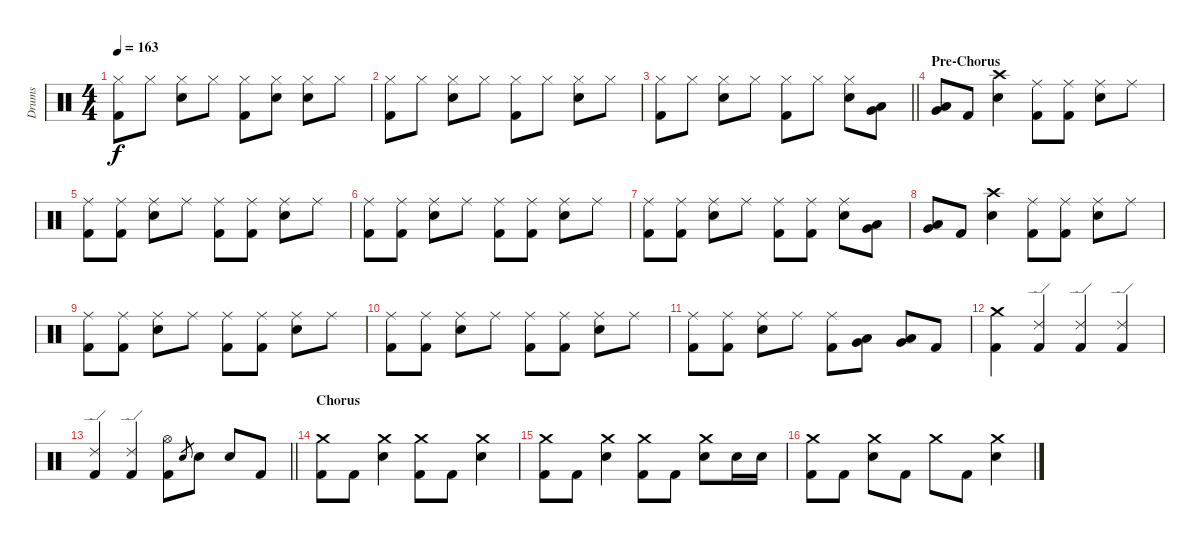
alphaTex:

\track ("Drums" "Drums") {instrument percussion}
\staff {score}
\articulation defaults
\ts (4 4)
\tempo 163
\clef neutral
\ks c
("Hi-Hat (closed)" "Kick (hit) 2").8{dy f} "Hi-Hat (closed)".8 ("Hi-Hat (closed)" "Electric Snare (hit)").8 "Hi-Hat (closed)".8 ("Hi-Hat (closed)" "Kick (hit) 2").8 ("Hi-Hat (closed)" "Electric Snare (hit)").8 ("Hi-Hat (closed)" "Electric Snare (hit)").8 "Hi-Hat (closed)".8 |
("Hi-Hat (closed)" "Kick (hit) 2").8 "Hi-Hat (closed)".8 ("Hi-Hat (closed)" "Electric Snare (hit)").8 "Hi-Hat (closed)".8 ("Hi-Hat (closed)" "Kick (hit) 2").8 "Hi-Hat (closed)".8 ("Hi-Hat (closed)" "Electric Snare (hit)").8 "Hi-Hat (closed)".8 |
\barLineRight lightlight
("Hi-Hat (closed)" "Kick (hit) 2").8 "Hi-Hat (closed)".8 ("Hi-Hat (closed)" "Electric Snare (hit)").8 "Hi-Hat (closed)".8 ("Hi-Hat (closed)" "Kick (hit) 2").8 "Hi-Hat (closed)".8 ("Hi-Hat (closed)" "Electric Snare (hit)").8 ("Low Floor Tom (hit)" "Very Low Tom (hit)").8 |
\section ("" "Pre-Chorus")
("Low Floor Tom (hit)" "Very Low Tom (hit)").8 "Kick (hit) 2".8 ("Crash high (hit)" "Electric Snare (hit)").4 ("Ride (middle)" "Kick (hit) 2").8 ("Ride (middle)" "Kick (hit) 2").8 ("Ride (middle)" "Electric Snare (hit)").8 "Ride (middle)".8 |
("Ride (middle)" "Kick (hit) 2").8 ("Ride (middle)" "Kick (hit) 2").8 ("Ride (middle)" "Electric Snare (hit)").8 "Ride (middle)".8 ("Ride (middle)" "Kick (hit) 2").8 ("Ride (middle)" "Kick (hit) 2").8 ("Ride (middle)" "Electric Snare (hit)").8 "Ride (middle)".8 |
("Ride (middle)" "Kick (hit) 2").8 ("Ride (middle)" "Kick (hit) 2").8 ("Ride (middle)" "Electric Snare (hit)").8 "Ride (middle)".8 ("Ride (middle)" "Kick (hit) 2").8 ("Ride (middle)" "Kick (hit) 2").8 ("Ride (middle)" "Electric Snare (hit)").8 "Ride (middle)".8 |
("Ride (middle)" "Kick (hit) 2").8 ("Ride (middle)" "Kick (hit) 2").8 ("Ride (middle)" "Electric Snare (hit)").8 "Ride (middle)".8 ("Ride (middle)" "Kick (hit) 2").8 ("Ride (middle)" "Kick (hit) 2").8 ("Ride (middle)" "Electric Snare (hit)").8 ("Very Low Tom (hit)" "Low Floor Tom (hit)").8 |
("Low Floor Tom (hit)" "Very Low Tom (hit)").8 "Kick (hit) 2".8 ("Crash high (hit)" "Electric Snare (hit)").4 ("Ride (middle)" "Kick (hit) 2").8 ("Ride (middle)" "Kick (hit) 2").8 ("Ride (middle)" "Electric Snare (hit)").8 "Ride (middle)".8 |
("Ride (middle)" "Kick (hit) 2").8 ("Ride (middle)" "Kick (hit) 2").8 ("Ride (middle)" "Electric Snare (hit)").8 "Ride (middle)".8 ("Ride (middle)" "Kick (hit) 2").8 ("Ride (middle)" "Kick (hit) 2").8 ("Ride (middle)" "Electric Snare (hit)").8 "Ride (middle)".8 |
("Ride (middle)" "Kick (hit) 2").8 ("Ride (middle)" "Kick (hit) 2").8 ("Ride (middle)" "Electric Snare (hit)").8 "Ride (middle)".8 ("Ride (middle)" "Kick (hit) 2").8 ("Ride (middle)" "Kick (hit) 2").8 ("Ride (middle)" "Electric Snare (hit)").8 "Ride (middle)".8 |
("Ride (middle)" "Kick (hit) 2").8 ("Ride (middle)" "Kick (hit) 2").8 ("Ride (middle)" "Electric Snare (hit)").8 "Ride (middle)".8 ("Ride (middle)" "Kick (hit) 2").8 ("Low Floor Tom (hit)" "Very Low Tom (hit)").8 ("Low Floor Tom (hit)" "Very Low Tom (hit)").8 "Kick (hit) 2".8 |
("Crash medium (hit)" "Kick (hit) 2").4 ("Ride (edge) 2" "Kick (hit) 2").4 ("Ride (edge) 2" "Kick (hit) 2").4 ("Ride (edge) 2" "Kick (hit) 2").4 |
\barLineRight lightlight
("Ride (edge) 2" "Kick (hit) 2").4 ("Ride (edge) 2" "Kick (hit) 2").4 ("Hi-Hat (open)" "Kick (hit) 2").8 "Electric Snare (hit)".8{gr} "Electric Snare (hit)".8 "Electric Snare (hit)".8 "Kick (hit) 2".8 |
\section ("" "Chorus")
("Crash medium (hit)" "Kick (hit) 2").8 "Kick (hit) 2".8 ("Crash medium (hit)" "Electric Snare (hit)").4 ("Crash medium (hit)" "Kick (hit) 2").8 "Kick (hit) 2".8 ("Crash medium (hit)" "Electric Snare (hit)").4 |
("Crash medium (hit)" "Kick (hit) 2").8 "Kick (hit) 2".8 ("Crash medium (hit)" "Electric Snare (hit)").4 ("Crash medium (hit)" "Kick (hit) 2").8 "Kick (hit) 2".8 ("Crash medium (hit)" "Electric Snare (hit)").8 "Electric Snare (hit)".16 "Electric Snare (hit)".16 |
("Crash medium (hit)" "Kick (hit) 2").8 "Kick (hit) 2".8 ("Crash medium (hit)" "Electric Snare (hit)").8 "Kick (hit) 2".8 "Crash medium (hit)".8 "Kick (hit) 2".8 ("Crash medium (hit)" "Electric Snare (hit)").4
